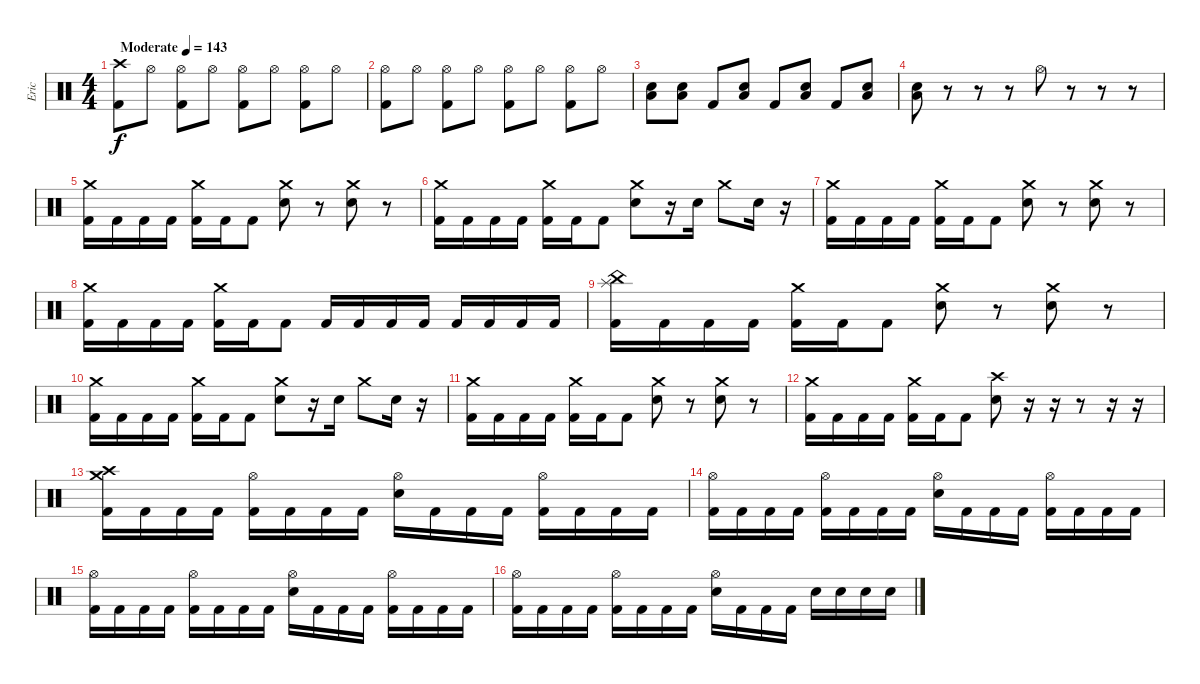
\track ("Eric" "Eric") {instrument percussion}
\staff {score}
\articulation defaults
\ts (4 4)
\tempo (143 "Moderate")
\clef neutral
\ks c
("Crash high (hit)" "Kick (hit) 2").8{dy f} "Hi-Hat (open)".8 ("Hi-Hat (open)" "Kick (hit) 2").8 "Hi-Hat (open)".8 ("Hi-Hat (open)" "Kick (hit) 2").8 "Hi-Hat (open)".8 ("Hi-Hat (open)" "Kick (hit) 2").8 "Hi-Hat (open)".8 |
("Hi-Hat (open)" "Kick (hit) 2").8 "Hi-Hat (open)".8 ("Hi-Hat (open)" "Kick (hit) 2").8 "Hi-Hat (open)".8 ("Hi-Hat (open)" "Kick (hit) 2").8 "Hi-Hat (open)".8 ("Hi-Hat (open)" "Kick (hit) 2").8 "Hi-Hat (open)".8 |
("Low Tom (hit)" "Electric Snare (hit)").8 ("Low Tom (hit)" "Electric Snare (hit)").8 "Kick (hit) 2".8 ("Low Tom (hit)" "Electric Snare (hit)").8 "Kick (hit) 2".8 ("Low Tom (hit)" "Electric Snare (hit)").8 "Kick (hit) 2".8 ("Low Tom (hit)" "Electric Snare (hit)").8 |
("Low Tom (hit)" "Electric Snare (hit)").8 r.8 r.8 r.8 "Hi-Hat (open)".8 r.8 r.8 r.8 |
("Crash medium (hit)" "Kick (hit) 2").16 "Kick (hit) 2".16 "Kick (hit) 2".16 "Kick (hit) 2".16 ("Crash medium (hit)" "Kick (hit) 2").16 "Kick (hit) 2".16 "Kick (hit) 2".8 ("Crash medium (hit)" "Electric Snare (hit)").8 r.8 ("Crash medium (hit)" "Electric Snare (hit)").8 r.8 |
("Crash medium (hit)" "Kick (hit) 2").16 "Kick (hit) 2".16 "Kick (hit) 2".16 "Kick (hit) 2".16 ("Crash medium (hit)" "Kick (hit) 2").16 "Kick (hit) 2".16 "Kick (hit) 2".8 ("Crash medium (hit)" "Electric Snare (hit)").8 r.16 "Electric Snare (hit)".16 "Crash medium (hit)".8 "Electric Snare (hit)".16 r.16 |
("Crash medium (hit)" "Kick (hit) 2").16 "Kick (hit) 2".16 "Kick (hit) 2".16 "Kick (hit) 2".16 ("Crash medium (hit)" "Kick (hit) 2").16 "Kick (hit) 2".16 "Kick (hit) 2".8 ("Crash medium (hit)" "Electric Snare (hit)").8 r.8 ("Crash medium (hit)" "Electric Snare (hit)").8 r.8 |
("Crash medium (hit)" "Kick (hit) 2").16 "Kick (hit) 2".16 "Kick (hit) 2".16 "Kick (hit) 2".16 ("Crash medium (hit)" "Kick (hit) 2").16 "Kick (hit) 2".16 "Kick (hit) 2".8 "Kick (hit) 2".16 "Kick (hit) 2".16 "Kick (hit) 2".16 "Kick (hit) 2".16 "Kick (hit) 2".16 "Kick (hit) 2".16 "Kick (hit) 2".16 "Kick (hit) 2".16 |
("China (hit)" "Splash (hit)" "Kick (hit) 2").16 "Kick (hit) 2".16 "Kick (hit) 2".16 "Kick (hit) 2".16 ("Crash medium (hit)" "Kick (hit) 2").16 "Kick (hit) 2".16 "Kick (hit) 2".8 ("Crash medium (hit)" "Electric Snare (hit)").8 r.8 ("Crash medium (hit)" "Electric Snare (hit)").8 r.8 |
("Crash medium (hit)" "Kick (hit) 2").16 "Kick (hit) 2".16 "Kick (hit) 2".16 "Kick (hit) 2".16 ("Crash medium (hit)" "Kick (hit) 2").16 "Kick (hit) 2".16 "Kick (hit) 2".8 ("Crash medium (hit)" "Electric Snare (hit)").8 r.16 "Electric Snare (hit)".16 "Crash medium (hit)".8 "Electric Snare (hit)".16 r.16 |
("Crash medium (hit)" "Kick (hit) 2").16 "Kick (hit) 2".16 "Kick (hit) 2".16 "Kick (hit) 2".16 ("Crash medium (hit)" "Kick (hit) 2").16 "Kick (hit) 2".16 "Kick (hit) 2".8 ("Crash medium (hit)" "Electric Snare (hit)").8 r.8 ("Crash medium (hit)" "Electric Snare (hit)").8 r.8 |
("Crash medium (hit)" "Kick (hit) 2").16 "Kick (hit) 2".16 "Kick (hit) 2".16 "Kick (hit) 2".16 ("Crash medium (hit)" "Kick (hit) 2").16 "Kick (hit) 2".16 "Kick (hit) 2".8 ("Crash high (hit)" "Electric Snare (hit)").8 r.16 r.16 r.8 r.16 r.16 |
("Crash high (hit)" "Crash medium (hit)" "Kick (hit) 2").16 "Kick (hit) 2".16 "Kick (hit) 2".16 "Kick (hit) 2".16 ("Hi-Hat (open)" "Kick (hit) 2").16 "Kick (hit) 2".16 "Kick (hit) 2".16 "Kick (hit) 2".16 ("Hi-Hat (open)" "Electric Snare (hit)").16 "Kick (hit) 2".16 "Kick (hit) 2".16 "Kick (hit) 2".16 ("Hi-Hat (open)" "Kick (hit) 2").16 "Kick (hit) 2".16 "Kick (hit) 2".16 "Kick (hit) 2".16 |
("Hi-Hat (open)" "Kick (hit) 2").16 "Kick (hit) 2".16 "Kick (hit) 2".16 "Kick (hit) 2".16 ("Hi-Hat (open)" "Kick (hit) 2").16 "Kick (hit) 2".16 "Kick (hit) 2".16 "Kick (hit) 2".16 ("Hi-Hat (open)" "Electric Snare (hit)").16 "Kick (hit) 2".16 "Kick (hit) 2".16 "Kick (hit) 2".16 ("Hi-Hat (open)" "Kick (hit) 2").16 "Kick (hit) 2".16 "Kick (hit) 2".16 "Kick (hit) 2".16 |
("Hi-Hat (open)" "Kick (hit) 2").16 "Kick (hit) 2".16 "Kick (hit) 2".16 "Kick (hit) 2".16 ("Hi-Hat (open)" "Kick (hit) 2").16 "Kick (hit) 2".16 "Kick (hit) 2".16 "Kick (hit) 2".16 ("Hi-Hat (open)" "Electric Snare (hit)").16 "Kick (hit) 2".16 "Kick (hit) 2".16 "Kick (hit) 2".16 ("Hi-Hat (open)" "Kick (hit) 2").16 "Kick (hit) 2".16 "Kick (hit) 2".16 "Kick (hit) 2".16 |
("Hi-Hat (open)" "Kick (hit) 2").16 "Kick (hit) 2".16 "Kick (hit) 2".16 "Kick (hit) 2".16 ("Hi-Hat (open)" "Kick (hit) 2").16 "Kick (hit) 2".16 "Kick (hit) 2".16 "Kick (hit) 2".16 ("Hi-Hat (open)" "Electric Snare (hit)").16 "Kick (hit) 2".16 "Kick (hit) 2".16 "Kick (hit) 2".16 "Electric Snare (hit)".16 "Electric Snare (hit)".16 "Electric Snare (hit)".16 "Electric Snare (hit)".16
